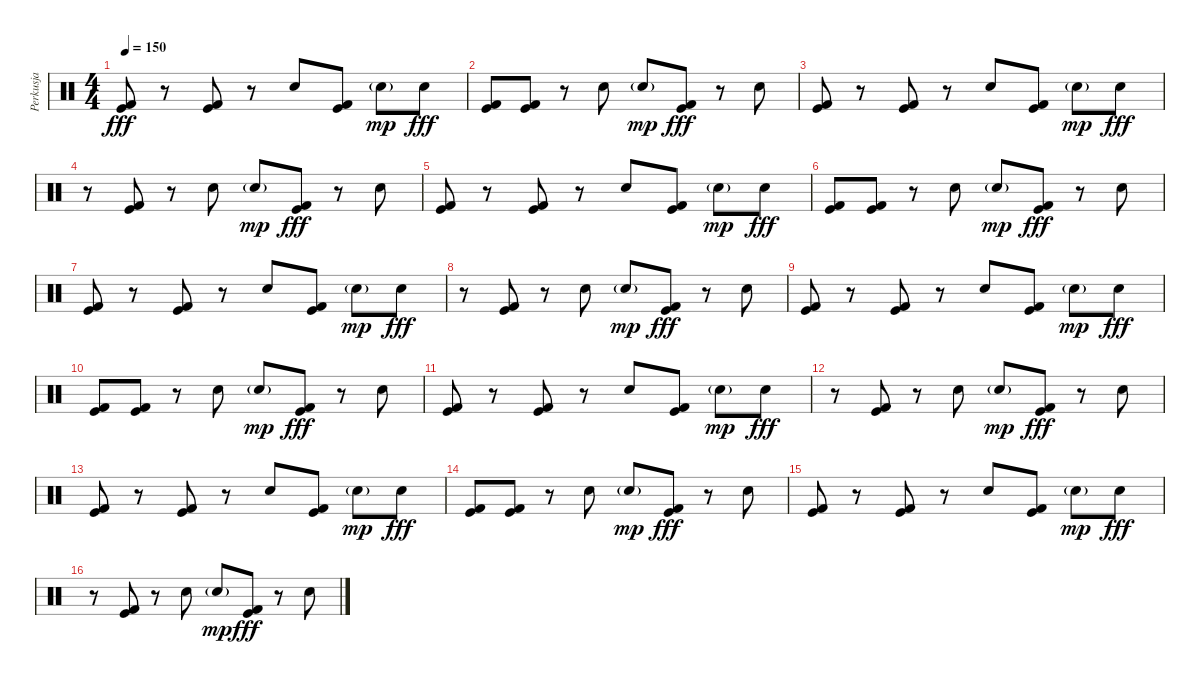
\track ("Perkusja" "Perkusja") {instrument percussion}
\staff {score}
\articulation defaults
\ts (4 4)
\tempo 150
\clef neutral
\ks c
("Kick (hit)" "Kick (hit) 2").8{dy fff} r.8 ("Kick (hit)" "Kick (hit) 2").8 r.8 "Electric Snare (hit)".8 ("Kick (hit)" "Kick (hit) 2").8 "Electric Snare (hit)"{g}.8{dy mp} "Electric Snare (hit)".8{dy fff} |
("Kick (hit)" "Kick (hit) 2").8 ("Kick (hit)" "Kick (hit) 2").8 r.8 "Electric Snare (hit)".8 "Electric Snare (hit)"{g}.8{dy mp} ("Kick (hit)" "Kick (hit) 2").8{dy fff} r.8 "Electric Snare (hit)".8 |
("Kick (hit)" "Kick (hit) 2").8 r.8 ("Kick (hit)" "Kick (hit) 2").8 r.8 "Electric Snare (hit)".8 ("Kick (hit)" "Kick (hit) 2").8 "Electric Snare (hit)"{g}.8{dy mp} "Electric Snare (hit)".8{dy fff} |
r.8 ("Kick (hit)" "Kick (hit) 2").8 r.8 "Electric Snare (hit)".8 "Electric Snare (hit)"{g}.8{dy mp} ("Kick (hit)" "Kick (hit) 2").8{dy fff} r.8 "Electric Snare (hit)".8 |
("Kick (hit)" "Kick (hit) 2").8 r.8 ("Kick (hit)" "Kick (hit) 2").8 r.8 "Electric Snare (hit)".8 ("Kick (hit)" "Kick (hit) 2").8 "Electric Snare (hit)"{g}.8{dy mp} "Electric Snare (hit)".8{dy fff} |
("Kick (hit)" "Kick (hit) 2").8 ("Kick (hit)" "Kick (hit) 2").8 r.8 "Electric Snare (hit)".8 "Electric Snare (hit)"{g}.8{dy mp} ("Kick (hit)" "Kick (hit) 2").8{dy fff} r.8 "Electric Snare (hit)".8 |
("Kick (hit)" "Kick (hit) 2").8 r.8 ("Kick (hit)" "Kick (hit) 2").8 r.8 "Electric Snare (hit)".8 ("Kick (hit)" "Kick (hit) 2").8 "Electric Snare (hit)"{g}.8{dy mp} "Electric Snare (hit)".8{dy fff} |
r.8 ("Kick (hit)" "Kick (hit) 2").8 r.8 "Electric Snare (hit)".8 "Electric Snare (hit)"{g}.8{dy mp} ("Kick (hit)" "Kick (hit) 2").8{dy fff} r.8 "Electric Snare (hit)".8 |
("Kick (hit)" "Kick (hit) 2").8 r.8 ("Kick (hit)" "Kick (hit) 2").8 r.8 "Electric Snare (hit)".8 ("Kick (hit)" "Kick (hit) 2").8 "Electric Snare (hit)"{g}.8{dy mp} "Electric Snare (hit)".8{dy fff} |
("Kick (hit)" "Kick (hit) 2").8 ("Kick (hit)" "Kick (hit) 2").8 r.8 "Electric Snare (hit)".8 "Electric Snare (hit)"{g}.8{dy mp} ("Kick (hit)" "Kick (hit) 2").8{dy fff} r.8 "Electric Snare (hit)".8 |
("Kick (hit)" "Kick (hit) 2").8 r.8 ("Kick (hit)" "Kick (hit) 2").8 r.8 "Electric Snare (hit)".8 ("Kick (hit)" "Kick (hit) 2").8 "Electric Snare (hit)"{g}.8{dy mp} "Electric Snare (hit)".8{dy fff} |
r.8 ("Kick (hit)" "Kick (hit) 2").8 r.8 "Electric Snare (hit)".8 "Electric Snare (hit)"{g}.8{dy mp} ("Kick (hit)" "Kick (hit) 2").8{dy fff} r.8 "Electric Snare (hit)".8 |
("Kick (hit)" "Kick (hit) 2").8 r.8 ("Kick (hit)" "Kick (hit) 2").8 r.8 "Electric Snare (hit)".8 ("Kick (hit)" "Kick (hit) 2").8 "Electric Snare (hit)"{g}.8{dy mp} "Electric Snare (hit)".8{dy fff} |
("Kick (hit)" "Kick (hit) 2").8 ("Kick (hit)" "Kick (hit) 2").8 r.8 "Electric Snare (hit)".8 "Electric Snare (hit)"{g}.8{dy mp} ("Kick (hit)" "Kick (hit) 2").8{dy fff} r.8 "Electric Snare (hit)".8 |
("Kick (hit)" "Kick (hit) 2").8 r.8 ("Kick (hit)" "Kick (hit) 2").8 r.8 "Electric Snare (hit)".8 ("Kick (hit)" "Kick (hit) 2").8 "Electric Snare (hit)"{g}.8{dy mp} "Electric Snare (hit)".8{dy fff} |
r.8 ("Kick (hit)" "Kick (hit) 2").8 r.8 "Electric Snare (hit)".8 "Electric Snare (hit)"{g}.8{dy mp} ("Kick (hit)" "Kick (hit) 2").8{dy fff} r.8 "Electric Snare (hit)".8
